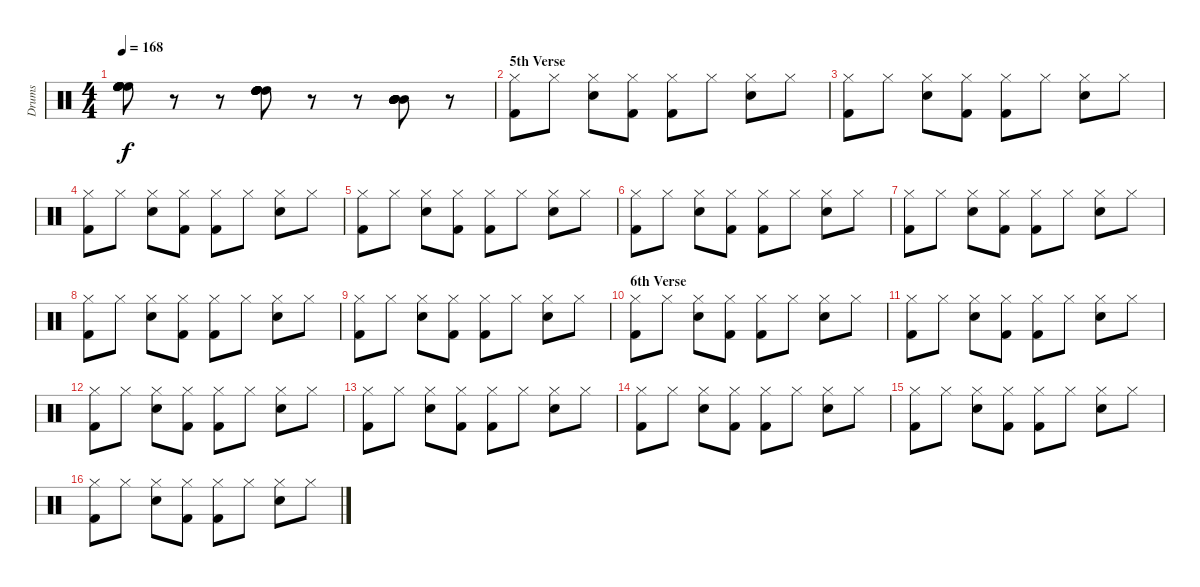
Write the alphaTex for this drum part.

\track ("Drums" "Drums") {instrument percussion}
\staff {score}
\articulation defaults
\ts (4 4)
\tempo 168
\clef neutral
\ks c
("High Floor Tom (hit)" "High Floor Tom (hit)" "High Floor Tom (hit)" "High Floor Tom (hit)" "High Floor Tom (hit)" "High Floor Tom (hit)").8{dy f} r.8 r.8 ("High Tom (hit)" "High Tom (hit)" "High Tom (hit)" "High Tom (hit)" "High Tom (hit)" "High Tom (hit)").8 r.8 r.8 ("Mid Tom (hit)" "Mid Tom (hit)" "Mid Tom (hit)" "Mid Tom (hit)" "Mid Tom (hit)" "Mid Tom (hit)").8 r.8 |
\section ("" "5th Verse")
("Kick (hit) 2" "Hi-Hat (closed)").8 "Hi-Hat (closed)".8 ("Snare (hit) 2" "Hi-Hat (closed)").8 ("Kick (hit) 2" "Hi-Hat (closed)").8 ("Kick (hit) 2" "Hi-Hat (closed)").8 "Hi-Hat (closed)".8 ("Snare (hit) 2" "Hi-Hat (closed)").8 "Hi-Hat (closed)".8 |
("Kick (hit) 2" "Hi-Hat (closed)").8 "Hi-Hat (closed)".8 ("Snare (hit) 2" "Hi-Hat (closed)").8 ("Kick (hit) 2" "Hi-Hat (closed)").8 ("Kick (hit) 2" "Hi-Hat (closed)").8 "Hi-Hat (closed)".8 ("Snare (hit) 2" "Hi-Hat (closed)").8 "Hi-Hat (closed)".8 |
("Kick (hit) 2" "Hi-Hat (closed)").8 "Hi-Hat (closed)".8 ("Snare (hit) 2" "Hi-Hat (closed)").8 ("Kick (hit) 2" "Hi-Hat (closed)").8 ("Kick (hit) 2" "Hi-Hat (closed)").8 "Hi-Hat (closed)".8 ("Snare (hit) 2" "Hi-Hat (closed)").8 "Hi-Hat (closed)".8 |
("Kick (hit) 2" "Hi-Hat (closed)").8 "Hi-Hat (closed)".8 ("Snare (hit) 2" "Hi-Hat (closed)").8 ("Kick (hit) 2" "Hi-Hat (closed)").8 ("Kick (hit) 2" "Hi-Hat (closed)").8 "Hi-Hat (closed)".8 ("Snare (hit) 2" "Hi-Hat (closed)").8 "Hi-Hat (closed)".8 |
("Kick (hit) 2" "Hi-Hat (closed)").8 "Hi-Hat (closed)".8 ("Snare (hit) 2" "Hi-Hat (closed)").8 ("Kick (hit) 2" "Hi-Hat (closed)").8 ("Kick (hit) 2" "Hi-Hat (closed)").8 "Hi-Hat (closed)".8 ("Snare (hit) 2" "Hi-Hat (closed)").8 "Hi-Hat (closed)".8 |
("Kick (hit) 2" "Hi-Hat (closed)").8 "Hi-Hat (closed)".8 ("Snare (hit) 2" "Hi-Hat (closed)").8 ("Kick (hit) 2" "Hi-Hat (closed)").8 ("Kick (hit) 2" "Hi-Hat (closed)").8 "Hi-Hat (closed)".8 ("Snare (hit) 2" "Hi-Hat (closed)").8 "Hi-Hat (closed)".8 |
("Kick (hit) 2" "Hi-Hat (closed)").8 "Hi-Hat (closed)".8 ("Snare (hit) 2" "Hi-Hat (closed)").8 ("Kick (hit) 2" "Hi-Hat (closed)").8 ("Kick (hit) 2" "Hi-Hat (closed)").8 "Hi-Hat (closed)".8 ("Snare (hit) 2" "Hi-Hat (closed)").8 "Hi-Hat (closed)".8 |
("Kick (hit) 2" "Hi-Hat (closed)").8 "Hi-Hat (closed)".8 ("Snare (hit) 2" "Hi-Hat (closed)").8 ("Kick (hit) 2" "Hi-Hat (closed)").8 ("Kick (hit) 2" "Hi-Hat (closed)").8 "Hi-Hat (closed)".8 ("Snare (hit) 2" "Hi-Hat (closed)").8 "Hi-Hat (closed)".8 |
\section ("" "6th Verse")
("Kick (hit) 2" "Hi-Hat (closed)").8 "Hi-Hat (closed)".8 ("Snare (hit) 2" "Hi-Hat (closed)").8 ("Kick (hit) 2" "Hi-Hat (closed)").8 ("Kick (hit) 2" "Hi-Hat (closed)").8 "Hi-Hat (closed)".8 ("Snare (hit) 2" "Hi-Hat (closed)").8 "Hi-Hat (closed)".8 |
("Kick (hit) 2" "Hi-Hat (closed)").8 "Hi-Hat (closed)".8 ("Snare (hit) 2" "Hi-Hat (closed)").8 ("Kick (hit) 2" "Hi-Hat (closed)").8 ("Kick (hit) 2" "Hi-Hat (closed)").8 "Hi-Hat (closed)".8 ("Snare (hit) 2" "Hi-Hat (closed)").8 "Hi-Hat (closed)".8 |
("Kick (hit) 2" "Hi-Hat (closed)").8 "Hi-Hat (closed)".8 ("Snare (hit) 2" "Hi-Hat (closed)").8 ("Kick (hit) 2" "Hi-Hat (closed)").8 ("Kick (hit) 2" "Hi-Hat (closed)").8 "Hi-Hat (closed)".8 ("Snare (hit) 2" "Hi-Hat (closed)").8 "Hi-Hat (closed)".8 |
("Kick (hit) 2" "Hi-Hat (closed)").8 "Hi-Hat (closed)".8 ("Snare (hit) 2" "Hi-Hat (closed)").8 ("Kick (hit) 2" "Hi-Hat (closed)").8 ("Kick (hit) 2" "Hi-Hat (closed)").8 "Hi-Hat (closed)".8 ("Snare (hit) 2" "Hi-Hat (closed)").8 "Hi-Hat (closed)".8 |
("Kick (hit) 2" "Hi-Hat (closed)").8 "Hi-Hat (closed)".8 ("Snare (hit) 2" "Hi-Hat (closed)").8 ("Kick (hit) 2" "Hi-Hat (closed)").8 ("Kick (hit) 2" "Hi-Hat (closed)").8 "Hi-Hat (closed)".8 ("Snare (hit) 2" "Hi-Hat (closed)").8 "Hi-Hat (closed)".8 |
("Kick (hit) 2" "Hi-Hat (closed)").8 "Hi-Hat (closed)".8 ("Snare (hit) 2" "Hi-Hat (closed)").8 ("Kick (hit) 2" "Hi-Hat (closed)").8 ("Kick (hit) 2" "Hi-Hat (closed)").8 "Hi-Hat (closed)".8 ("Snare (hit) 2" "Hi-Hat (closed)").8 "Hi-Hat (closed)".8 |
("Kick (hit) 2" "Hi-Hat (closed)").8 "Hi-Hat (closed)".8 ("Snare (hit) 2" "Hi-Hat (closed)").8 ("Kick (hit) 2" "Hi-Hat (closed)").8 ("Kick (hit) 2" "Hi-Hat (closed)").8 "Hi-Hat (closed)".8 ("Snare (hit) 2" "Hi-Hat (closed)").8 "Hi-Hat (closed)".8
